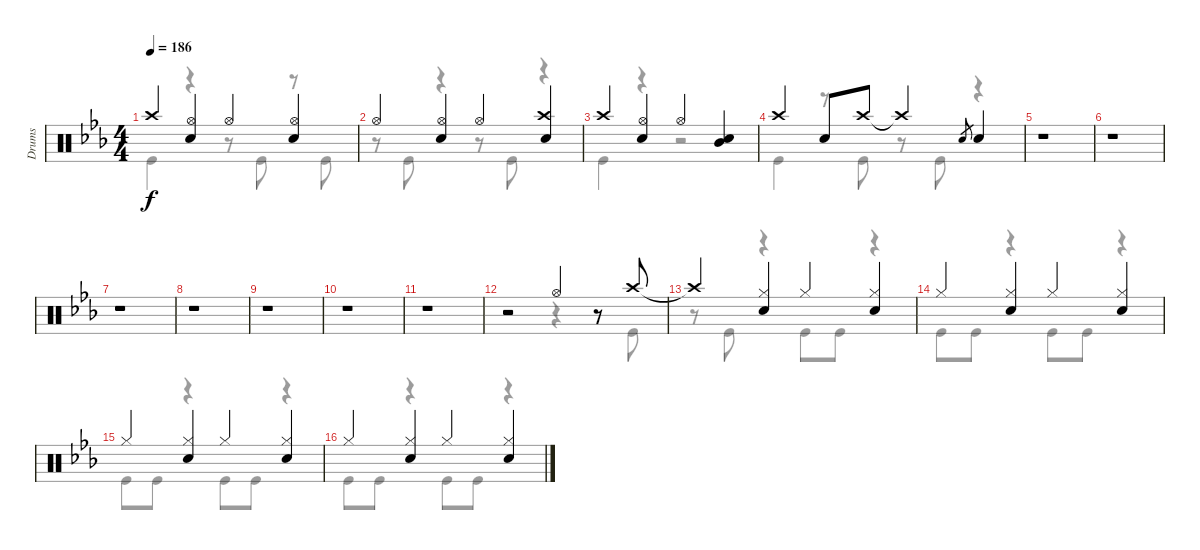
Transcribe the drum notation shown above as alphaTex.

\track ("Drums" "Drums") {instrument percussion}
\staff {score}
\articulation defaults
\voice
\ts (4 4)
\tempo 186
\clef neutral
\ks eb "Crash high (hit)".4{dy f beam Up}
("Hi-Hat (open)" "Snare (hit) 2").4{beam Up} "Hi-Hat (open)".4{beam Up} ("Hi-Hat (open)" "Snare (hit) 2").4{beam Up} |
"Hi-Hat (open)".4{beam Up} ("Snare (hit) 2" "Hi-Hat (open)").4{beam Up} "Hi-Hat (open)".4{beam Up} ("Crash high (hit)" "Snare (hit) 2").4{beam Up} |
"Crash high (hit)".4{beam Up} ("Hi-Hat (open)" "Snare (hit) 2").4{beam Up} "Hi-Hat (open)".4{beam Up} ("Snare (hit) 2" "Mid Tom (hit)").4{beam Up} |
"Crash high (hit)".4{beam Up} "Snare (hit) 2".8{beam Up} "Crash high (hit)".8{beam Up} "Crash high (hit)"{t}.4{beam Up} "Snare (hit) 2".8{gr} "Snare (hit) 2".4{beam Up} |
r.1{beam Up} |
r.1 |
r.1{beam Up} |
r.1 |
r.1{beam Up} |
r.1 |
r.1 |
r.2 "Hi-Hat (open)".4{beam Up} r.8 "Crash high (hit)".8{beam Up} |
"Crash high (hit)"{t}.4{beam Up} ("Hi-Hat (closed)" "Snare (hit) 2").4{beam Up} "Hi-Hat (closed)".4{beam Up} ("Hi-Hat (closed)" "Snare (hit) 2").4{beam Up} |
"Hi-Hat (closed)".4{beam Up} ("Hi-Hat (closed)" "Snare (hit) 2").4{beam Up} "Hi-Hat (closed)".4{beam Up} ("Hi-Hat (closed)" "Snare (hit) 2").4{beam Up} |
"Hi-Hat (closed)".4{beam Up} ("Hi-Hat (closed)" "Snare (hit) 2").4{beam Up} "Hi-Hat (closed)".4{beam Up} ("Hi-Hat (closed)" "Snare (hit) 2").4{beam Up} |
"Hi-Hat (closed)".4{beam Up} ("Hi-Hat (closed)" "Snare (hit) 2").4{beam Up} "Hi-Hat (closed)".4{beam Up} ("Hi-Hat (closed)" "Snare (hit) 2").4{beam Up}
\voice
\clef neutral
\ottava regular
\simile none
\ks eb "Kick (hit)".4{dy f}
r.4 r.8 "Kick (hit)".8 r.8 "Kick (hit)".8 |
r.8 "Kick (hit)".8 r.4 r.8 "Kick (hit)".8 r.4 |
"Kick (hit)".4 r.4 r.2 |
"Kick (hit)".4 r.8 "Kick (hit)".8 r.8 "Kick (hit)".8 r.4 |
r.1 |
r.1 |
r.1 |
r.1 |
r.1 |
r.1 |
r.1 |
r.2 r.4 r.8 "Kick (hit)".8 |
r.8 "Kick (hit)".8 r.4 "Kick (hit)".8 "Kick (hit)".8 r.4 |
"Kick (hit)".8 "Kick (hit)".8 r.4 "Kick (hit)".8 "Kick (hit)".8 r.4 |
"Kick (hit)".8 "Kick (hit)".8 r.4 "Kick (hit)".8 "Kick (hit)".8 r.4 |
"Kick (hit)".8 "Kick (hit)".8 r.4 "Kick (hit)".8 "Kick (hit)".8 r.4
